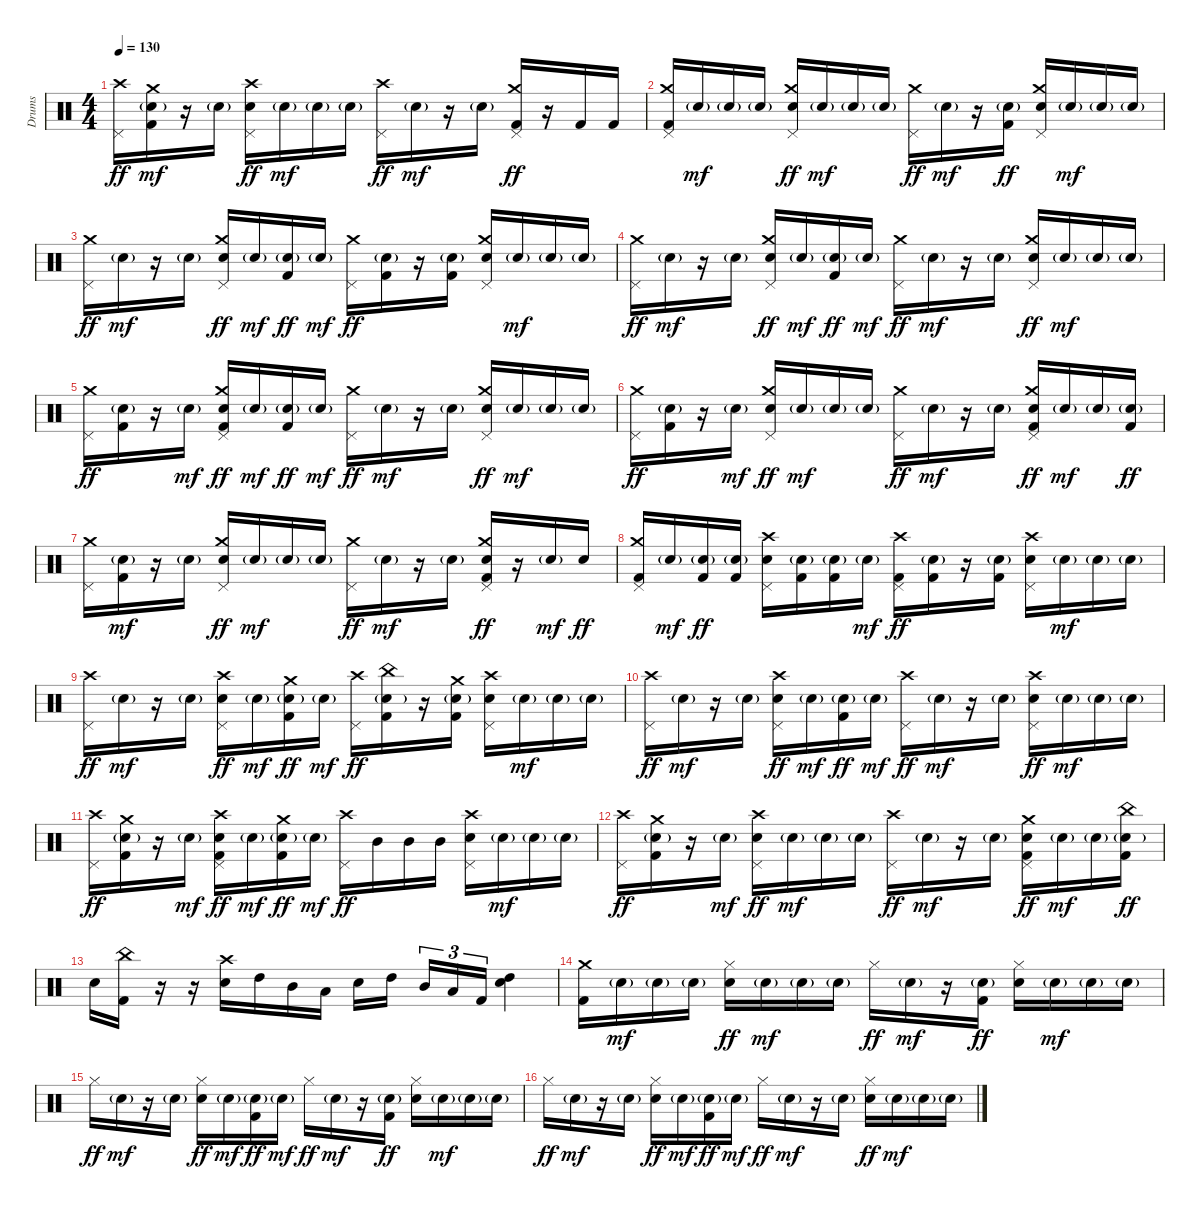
\track ("Drums" "Drums") {instrument percussion}
\staff {score}
\articulation defaults
\ts (4 4)
\tempo 130
\clef neutral
\ks c
("Crash high (hit)" "Pedal Hi-Hat (hit)").16{dy ff} ("Crash medium (hit)" "Electric Snare (hit)"{g} "Kick (hit) 2").16{dy mf} r.16 "Electric Snare (hit)"{g}.16 ("Crash high (hit)" "Pedal Hi-Hat (hit)" "Electric Snare (hit)").16{dy ff} "Electric Snare (hit)"{g}.16{dy mf} "Electric Snare (hit)"{g}.16 "Electric Snare (hit)"{g}.16 ("Crash high (hit)" "Pedal Hi-Hat (hit)").16{dy ff} "Electric Snare (hit)"{g}.16{dy mf} r.16 "Electric Snare (hit)"{g}.16 ("Crash medium (hit)" "Pedal Hi-Hat (hit)" "Kick (hit) 2").16{dy ff} r.16 "Kick (hit) 2".16 "Kick (hit) 2".16 |
("Crash medium (hit)" "Pedal Hi-Hat (hit)" "Kick (hit) 2").16 "Electric Snare (hit)"{g}.16{dy mf} "Electric Snare (hit)"{g}.16 "Electric Snare (hit)"{g}.16 ("Crash medium (hit)" "Pedal Hi-Hat (hit)" "Electric Snare (hit)").16{dy ff} "Electric Snare (hit)"{g}.16{dy mf} "Electric Snare (hit)"{g}.16 "Electric Snare (hit)"{g}.16 ("Crash medium (hit)" "Pedal Hi-Hat (hit)").16{dy ff} "Electric Snare (hit)"{g}.16{dy mf} r.16 ("Electric Snare (hit)"{g} "Kick (hit) 2").16{dy ff} ("Crash medium (hit)" "Pedal Hi-Hat (hit)" "Electric Snare (hit)").16 "Electric Snare (hit)"{g}.16{dy mf} "Electric Snare (hit)"{g}.16 "Electric Snare (hit)"{g}.16 |
("Crash medium (hit)" "Pedal Hi-Hat (hit)").16{dy ff} "Electric Snare (hit)"{g}.16{dy mf} r.16 "Electric Snare (hit)"{g}.16 ("Crash medium (hit)" "Pedal Hi-Hat (hit)" "Electric Snare (hit)").16{dy ff} "Electric Snare (hit)"{g}.16{dy mf} ("Electric Snare (hit)"{g} "Kick (hit) 2").16{dy ff} "Electric Snare (hit)"{g}.16{dy mf} ("Crash medium (hit)" "Pedal Hi-Hat (hit)").16{dy ff} ("Electric Snare (hit)"{g} "Kick (hit) 2").16 r.16 ("Electric Snare (hit)"{g} "Kick (hit) 2").16 ("Crash medium (hit)" "Pedal Hi-Hat (hit)" "Electric Snare (hit)").16 "Electric Snare (hit)"{g}.16{dy mf} "Electric Snare (hit)"{g}.16 "Electric Snare (hit)"{g}.16 |
("Crash medium (hit)" "Pedal Hi-Hat (hit)").16{dy ff} "Electric Snare (hit)"{g}.16{dy mf} r.16 "Electric Snare (hit)"{g}.16 ("Crash medium (hit)" "Pedal Hi-Hat (hit)" "Electric Snare (hit)").16{dy ff} "Electric Snare (hit)"{g}.16{dy mf} ("Electric Snare (hit)"{g} "Kick (hit) 2").16{dy ff} "Electric Snare (hit)"{g}.16{dy mf} ("Crash medium (hit)" "Pedal Hi-Hat (hit)").16{dy ff} "Electric Snare (hit)"{g}.16{dy mf} r.16 "Electric Snare (hit)"{g}.16 ("Crash medium (hit)" "Pedal Hi-Hat (hit)" "Electric Snare (hit)").16{dy ff} "Electric Snare (hit)"{g}.16{dy mf} "Electric Snare (hit)"{g}.16 "Electric Snare (hit)"{g}.16 |
("Crash medium (hit)" "Pedal Hi-Hat (hit)").16{dy ff} ("Electric Snare (hit)"{g} "Kick (hit) 2").16 r.16 "Electric Snare (hit)"{g}.16{dy mf} ("Crash medium (hit)" "Pedal Hi-Hat (hit)" "Electric Snare (hit)" "Kick (hit) 2").16{dy ff} "Electric Snare (hit)"{g}.16{dy mf} ("Electric Snare (hit)"{g} "Kick (hit) 2").16{dy ff} "Electric Snare (hit)"{g}.16{dy mf} ("Crash medium (hit)" "Pedal Hi-Hat (hit)").16{dy ff} "Electric Snare (hit)"{g}.16{dy mf} r.16 "Electric Snare (hit)"{g}.16 ("Crash medium (hit)" "Pedal Hi-Hat (hit)" "Electric Snare (hit)").16{dy ff} "Electric Snare (hit)"{g}.16{dy mf} "Electric Snare (hit)"{g}.16 "Electric Snare (hit)"{g}.16 |
("Crash medium (hit)" "Pedal Hi-Hat (hit)").16{dy ff} ("Electric Snare (hit)"{g} "Kick (hit) 2").16 r.16 "Electric Snare (hit)"{g}.16{dy mf} ("Crash medium (hit)" "Pedal Hi-Hat (hit)" "Electric Snare (hit)").16{dy ff} "Electric Snare (hit)"{g}.16{dy mf} "Electric Snare (hit)"{g}.16 "Electric Snare (hit)"{g}.16 ("Crash medium (hit)" "Pedal Hi-Hat (hit)").16{dy ff} "Electric Snare (hit)"{g}.16{dy mf} r.16 "Electric Snare (hit)"{g}.16 ("Crash medium (hit)" "Pedal Hi-Hat (hit)" "Electric Snare (hit)" "Kick (hit) 2").16{dy ff} "Electric Snare (hit)"{g}.16{dy mf} "Electric Snare (hit)"{g}.16 ("Electric Snare (hit)"{g} "Kick (hit) 2").16{dy ff} |
("Crash medium (hit)" "Pedal Hi-Hat (hit)").16 ("Electric Snare (hit)"{g} "Kick (hit) 2").16{dy mf} r.16 "Electric Snare (hit)"{g}.16 ("Crash medium (hit)" "Pedal Hi-Hat (hit)" "Electric Snare (hit)").16{dy ff} "Electric Snare (hit)"{g}.16{dy mf} "Electric Snare (hit)"{g}.16 "Electric Snare (hit)"{g}.16 ("Crash medium (hit)" "Pedal Hi-Hat (hit)").16{dy ff} "Electric Snare (hit)"{g}.16{dy mf} r.16 "Electric Snare (hit)"{g}.16 ("Crash medium (hit)" "Pedal Hi-Hat (hit)" "Electric Snare (hit)" "Kick (hit) 2").16{dy ff} r.16 "Electric Snare (hit)"{g}.16{dy mf} "Electric Snare (hit)".16{dy ff} |
("Crash medium (hit)" "Pedal Hi-Hat (hit)" "Kick (hit) 2").16 "Electric Snare (hit)"{g}.16{dy mf} ("Electric Snare (hit)"{g} "Kick (hit) 2").16{dy ff} ("Electric Snare (hit)"{g} "Kick (hit) 2").16 ("Crash high (hit)" "Pedal Hi-Hat (hit)" "Electric Snare (hit)").16 ("Electric Snare (hit)"{g} "Kick (hit) 2").16 ("Electric Snare (hit)"{g} "Kick (hit) 2").16 "Electric Snare (hit)"{g}.16{dy mf} ("Crash high (hit)" "Pedal Hi-Hat (hit)" "Kick (hit) 2").16{dy ff} ("Electric Snare (hit)"{g} "Kick (hit) 2").16 r.16 ("Electric Snare (hit)"{g} "Kick (hit) 2").16 ("Crash high (hit)" "Pedal Hi-Hat (hit)" "Electric Snare (hit)").16 "Electric Snare (hit)"{g}.16{dy mf} "Electric Snare (hit)"{g}.16 "Electric Snare (hit)"{g}.16 |
("Crash high (hit)" "Pedal Hi-Hat (hit)").16{dy ff} "Electric Snare (hit)"{g}.16{dy mf} r.16 "Electric Snare (hit)"{g}.16 ("Crash high (hit)" "Pedal Hi-Hat (hit)" "Electric Snare (hit)").16{dy ff} "Electric Snare (hit)"{g}.16{dy mf} ("Crash medium (hit)" "Electric Snare (hit)"{g} "Kick (hit) 2").16{dy ff} "Electric Snare (hit)"{g}.16{dy mf} ("Crash high (hit)" "Pedal Hi-Hat (hit)").16{dy ff} ("China (hit)" "Electric Snare (hit)"{g} "Kick (hit) 2").16 r.16 ("Crash medium (hit)" "Electric Snare (hit)"{g} "Kick (hit) 2").16 ("Crash high (hit)" "Pedal Hi-Hat (hit)" "Electric Snare (hit)").16 "Electric Snare (hit)"{g}.16{dy mf} "Electric Snare (hit)"{g}.16 "Electric Snare (hit)"{g}.16 |
("Crash high (hit)" "Pedal Hi-Hat (hit)").16{dy ff} "Electric Snare (hit)"{g}.16{dy mf} r.16 "Electric Snare (hit)"{g}.16 ("Crash high (hit)" "Pedal Hi-Hat (hit)" "Electric Snare (hit)").16{dy ff} "Electric Snare (hit)"{g}.16{dy mf} ("Electric Snare (hit)"{g} "Kick (hit) 2").16{dy ff} "Electric Snare (hit)"{g}.16{dy mf} ("Crash high (hit)" "Pedal Hi-Hat (hit)").16{dy ff} "Electric Snare (hit)"{g}.16{dy mf} r.16 "Electric Snare (hit)"{g}.16 ("Crash high (hit)" "Pedal Hi-Hat (hit)" "Electric Snare (hit)").16{dy ff} "Electric Snare (hit)"{g}.16{dy mf} "Electric Snare (hit)"{g}.16 "Electric Snare (hit)"{g}.16 |
("Crash high (hit)" "Pedal Hi-Hat (hit)").16{dy ff} ("Crash medium (hit)" "Electric Snare (hit)"{g} "Kick (hit) 2").16 r.16 "Electric Snare (hit)"{g}.16{dy mf} ("Crash high (hit)" "Pedal Hi-Hat (hit)" "Electric Snare (hit)" "Kick (hit) 2").16{dy ff} "Electric Snare (hit)"{g}.16{dy mf} ("Crash medium (hit)" "Electric Snare (hit)"{g} "Kick (hit) 2").16{dy ff} "Electric Snare (hit)"{g}.16{dy mf} ("Crash high (hit)" "Pedal Hi-Hat (hit)").16{dy ff} "Mid Tom (hit)".16 "Mid Tom (hit)".16 "Mid Tom (hit)".16 ("Crash high (hit)" "Pedal Hi-Hat (hit)" "Electric Snare (hit)").16 "Electric Snare (hit)"{g}.16{dy mf} "Electric Snare (hit)"{g}.16 "Electric Snare (hit)"{g}.16 |
("Crash high (hit)" "Pedal Hi-Hat (hit)").16{dy ff} ("Crash medium (hit)" "Electric Snare (hit)"{g} "Kick (hit) 2").16 r.16 "Electric Snare (hit)"{g}.16{dy mf} ("Crash high (hit)" "Pedal Hi-Hat (hit)" "Electric Snare (hit)").16{dy ff} "Electric Snare (hit)"{g}.16{dy mf} "Electric Snare (hit)"{g}.16 "Electric Snare (hit)"{g}.16 ("Crash high (hit)" "Pedal Hi-Hat (hit)").16{dy ff} "Electric Snare (hit)"{g}.16{dy mf} r.16 "Electric Snare (hit)"{g}.16 ("Crash medium (hit)" "Pedal Hi-Hat (hit)" "Electric Snare (hit)" "Kick (hit) 2").16{dy ff} "Electric Snare (hit)"{g}.16{dy mf} "Electric Snare (hit)"{g}.16 ("China (hit)" "Electric Snare (hit)"{g} "Kick (hit) 2").16{dy ff} |
"Electric Snare (hit)".16 ("China (hit)" "Kick (hit) 2").16 r.16 r.16 ("Crash high (hit)" "Electric Snare (hit)").16 "High Tom (hit)".16 "Mid Tom (hit)".16 "Low Tom (hit)".16 "Electric Snare (hit)".16 "High Tom (hit)".16{beam splitsecondary} "Mid Tom (hit)".16{tu (3 2)} "Low Tom (hit)".16{tu (3 2)} "Kick (hit) 2".16{tu (3 2)} ("High Tom (hit)" "Electric Snare (hit)").4 |
("Crash medium (hit)" "Kick (hit) 2").16 "Electric Snare (hit)"{g}.16{dy mf} "Electric Snare (hit)"{g}.16 "Electric Snare (hit)"{g}.16 ("Hi-Hat (closed)" "Electric Snare (hit)").16{dy ff} "Electric Snare (hit)"{g}.16{dy mf} "Electric Snare (hit)"{g}.16 "Electric Snare (hit)"{g}.16 "Hi-Hat (closed)".16{dy ff} "Electric Snare (hit)"{g}.16{dy mf} r.16 ("Electric Snare (hit)"{g} "Kick (hit) 2").16{dy ff} ("Hi-Hat (closed)" "Electric Snare (hit)").16 "Electric Snare (hit)"{g}.16{dy mf} "Electric Snare (hit)"{g}.16 "Electric Snare (hit)"{g}.16 |
"Hi-Hat (closed)".16{dy ff} "Electric Snare (hit)"{g}.16{dy mf} r.16 "Electric Snare (hit)"{g}.16 ("Hi-Hat (closed)" "Electric Snare (hit)").16{dy ff} "Electric Snare (hit)"{g}.16{dy mf} ("Electric Snare (hit)"{g} "Kick (hit) 2").16{dy ff} "Electric Snare (hit)"{g}.16{dy mf} "Hi-Hat (closed)".16{dy ff} "Electric Snare (hit)"{g}.16{dy mf} r.16 ("Electric Snare (hit)"{g} "Kick (hit) 2").16{dy ff} ("Hi-Hat (closed)" "Electric Snare (hit)").16 "Electric Snare (hit)"{g}.16{dy mf} "Electric Snare (hit)"{g}.16 "Electric Snare (hit)"{g}.16 |
"Hi-Hat (closed)".16{dy ff} "Electric Snare (hit)"{g}.16{dy mf} r.16 "Electric Snare (hit)"{g}.16 ("Hi-Hat (closed)" "Electric Snare (hit)").16{dy ff} "Electric Snare (hit)"{g}.16{dy mf} ("Electric Snare (hit)"{g} "Kick (hit) 2").16{dy ff} "Electric Snare (hit)"{g}.16{dy mf} "Hi-Hat (closed)".16{dy ff} "Electric Snare (hit)"{g}.16{dy mf} r.16 "Electric Snare (hit)"{g}.16 ("Hi-Hat (closed)" "Electric Snare (hit)").16{dy ff} "Electric Snare (hit)"{g}.16{dy mf} "Electric Snare (hit)"{g}.16 "Electric Snare (hit)"{g}.16
